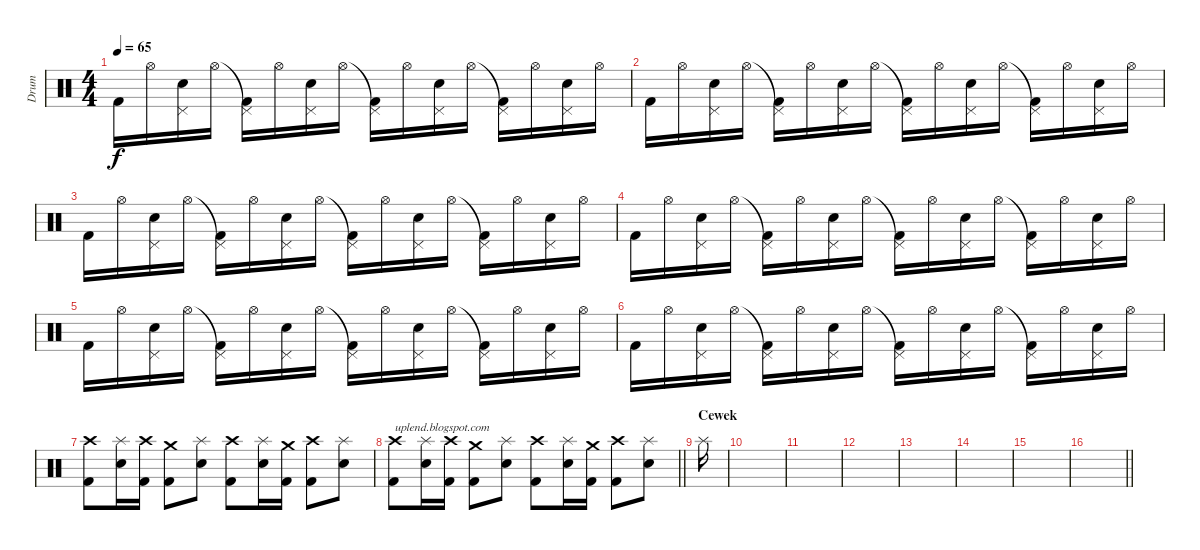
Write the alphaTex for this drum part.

\track ("Drum" "Drum") {instrument percussion}
\staff {score}
\articulation defaults
\ts (4 4)
\tempo 65
\clef neutral
\ks c "Kick (hit) 2".16{dy f} "Hi-Hat (open)".16
("Pedal Hi-Hat (hit)" "Electric Snare (hit)").16 "Hi-Hat (open)".16 ("Pedal Hi-Hat (hit)"{t} "Kick (hit) 2").16 "Hi-Hat (open)".16 ("Pedal Hi-Hat (hit)" "Electric Snare (hit)").16 "Hi-Hat (open)".16 ("Pedal Hi-Hat (hit)"{t} "Kick (hit) 2").16 "Hi-Hat (open)".16 ("Pedal Hi-Hat (hit)" "Electric Snare (hit)").16 "Hi-Hat (open)".16 ("Pedal Hi-Hat (hit)"{t} "Kick (hit) 2").16 "Hi-Hat (open)".16 ("Pedal Hi-Hat (hit)" "Electric Snare (hit)").16 "Hi-Hat (open)".16 |
"Kick (hit) 2".16 "Hi-Hat (open)".16 ("Pedal Hi-Hat (hit)" "Electric Snare (hit)").16 "Hi-Hat (open)".16 ("Pedal Hi-Hat (hit)"{t} "Kick (hit) 2").16 "Hi-Hat (open)".16 ("Pedal Hi-Hat (hit)" "Electric Snare (hit)").16 "Hi-Hat (open)".16 ("Pedal Hi-Hat (hit)"{t} "Kick (hit) 2").16 "Hi-Hat (open)".16 ("Pedal Hi-Hat (hit)" "Electric Snare (hit)").16 "Hi-Hat (open)".16 ("Pedal Hi-Hat (hit)"{t} "Kick (hit) 2").16 "Hi-Hat (open)".16 ("Pedal Hi-Hat (hit)" "Electric Snare (hit)").16 "Hi-Hat (open)".16 |
"Kick (hit) 2".16 "Hi-Hat (open)".16 ("Pedal Hi-Hat (hit)" "Electric Snare (hit)").16 "Hi-Hat (open)".16 ("Pedal Hi-Hat (hit)"{t} "Kick (hit) 2").16 "Hi-Hat (open)".16 ("Pedal Hi-Hat (hit)" "Electric Snare (hit)").16 "Hi-Hat (open)".16 ("Pedal Hi-Hat (hit)"{t} "Kick (hit) 2").16 "Hi-Hat (open)".16 ("Pedal Hi-Hat (hit)" "Electric Snare (hit)").16 "Hi-Hat (open)".16 ("Pedal Hi-Hat (hit)"{t} "Kick (hit) 2").16 "Hi-Hat (open)".16 ("Pedal Hi-Hat (hit)" "Electric Snare (hit)").16 "Hi-Hat (open)".16 |
"Kick (hit) 2".16 "Hi-Hat (open)".16 ("Pedal Hi-Hat (hit)" "Electric Snare (hit)").16 "Hi-Hat (open)".16 ("Pedal Hi-Hat (hit)"{t} "Kick (hit) 2").16 "Hi-Hat (open)".16 ("Pedal Hi-Hat (hit)" "Electric Snare (hit)").16 "Hi-Hat (open)".16 ("Pedal Hi-Hat (hit)"{t} "Kick (hit) 2").16 "Hi-Hat (open)".16 ("Pedal Hi-Hat (hit)" "Electric Snare (hit)").16 "Hi-Hat (open)".16 ("Pedal Hi-Hat (hit)"{t} "Kick (hit) 2").16 "Hi-Hat (open)".16 ("Pedal Hi-Hat (hit)" "Electric Snare (hit)").16 "Hi-Hat (open)".16 |
"Kick (hit) 2".16 "Hi-Hat (open)".16 ("Pedal Hi-Hat (hit)" "Electric Snare (hit)").16 "Hi-Hat (open)".16 ("Pedal Hi-Hat (hit)"{t} "Kick (hit) 2").16 "Hi-Hat (open)".16 ("Pedal Hi-Hat (hit)" "Electric Snare (hit)").16 "Hi-Hat (open)".16 ("Pedal Hi-Hat (hit)"{t} "Kick (hit) 2").16 "Hi-Hat (open)".16 ("Pedal Hi-Hat (hit)" "Electric Snare (hit)").16 "Hi-Hat (open)".16 ("Pedal Hi-Hat (hit)"{t} "Kick (hit) 2").16 "Hi-Hat (open)".16 ("Pedal Hi-Hat (hit)" "Electric Snare (hit)").16 "Hi-Hat (open)".16 |
"Kick (hit) 2".16 "Hi-Hat (open)".16 ("Pedal Hi-Hat (hit)" "Electric Snare (hit)").16 "Hi-Hat (open)".16 ("Pedal Hi-Hat (hit)"{t} "Kick (hit) 2").16 "Hi-Hat (open)".16 ("Pedal Hi-Hat (hit)" "Electric Snare (hit)").16 "Hi-Hat (open)".16 ("Pedal Hi-Hat (hit)"{t} "Kick (hit) 2").16 "Hi-Hat (open)".16 ("Pedal Hi-Hat (hit)" "Electric Snare (hit)").16 "Hi-Hat (open)".16 ("Pedal Hi-Hat (hit)"{t} "Kick (hit) 2").16 "Hi-Hat (open)".16 ("Pedal Hi-Hat (hit)" "Electric Snare (hit)").16 "Hi-Hat (open)".16 |
("Crash high (hit)" "Kick (hit) 2").8 ("Splash (hit)" "Electric Snare (hit)").16 ("Crash high (hit)" "Kick (hit) 2").16 ("Crash medium (hit)" "Kick (hit) 2").8 ("Splash (hit)" "Electric Snare (hit)").8 ("Crash high (hit)" "Kick (hit) 2").8 ("Splash (hit)" "Electric Snare (hit)").16 ("Crash medium (hit)" "Kick (hit) 2").16 ("Crash high (hit)" "Kick (hit) 2").8 ("Splash (hit)" "Electric Snare (hit)").8 |
\barLineRight lightlight
("Crash high (hit)" "Kick (hit) 2").8{txt "uplend.blogspot.com"} ("Splash (hit)" "Electric Snare (hit)").16 ("Crash high (hit)" "Kick (hit) 2").16 ("Crash medium (hit)" "Kick (hit) 2").8 ("Splash (hit)" "Electric Snare (hit)").8 ("Crash high (hit)" "Kick (hit) 2").8 ("Splash (hit)" "Electric Snare (hit)").16 ("Crash medium (hit)" "Kick (hit) 2").16 ("Crash high (hit)" "Kick (hit) 2").8 ("Splash (hit)" "Electric Snare (hit)").8 |
\section ("" "Cewek")
"Splash (hit)".16 |
|
|
|
|
|
|
\barLineRight lightlight
